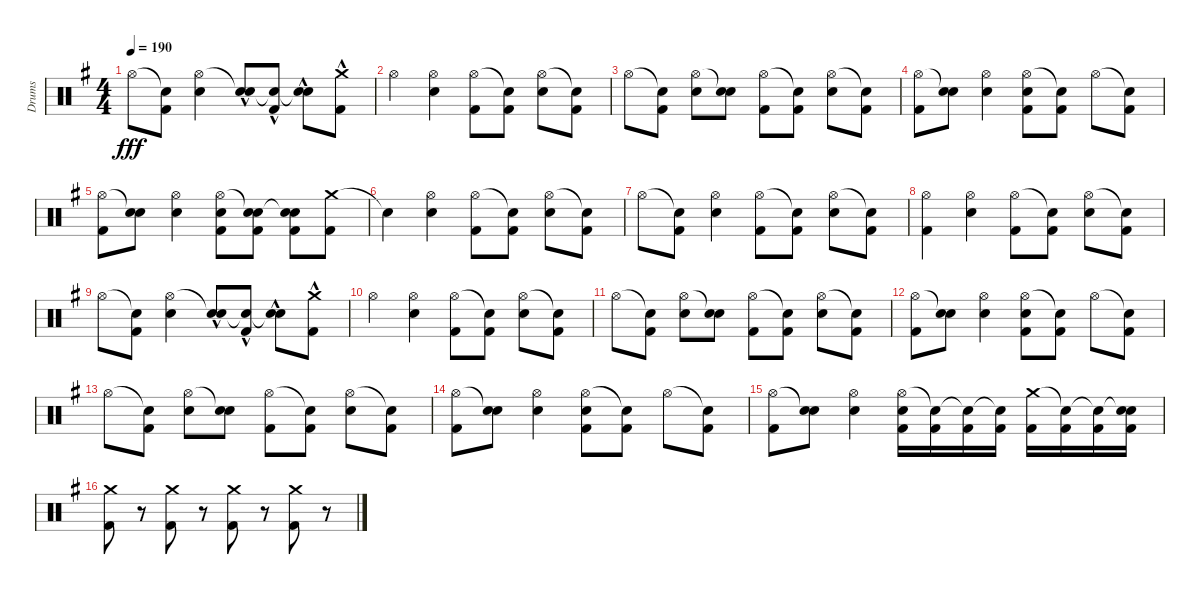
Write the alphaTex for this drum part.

\track ("Drums" "Drums") {instrument percussion}
\staff {score}
\articulation defaults
\ts (4 4)
\tempo 190
\clef neutral
\ks eminor "Hi-Hat (open)".8{dy fff}
("Snare (hit)"{t} "Kick (hit) 2").8 ("Hi-Hat (open)" "Electric Snare (hit)").4 ("Snare (hit)"{t} "Electric Snare (hit)"{hac}).8 ("Snare (hit)"{t} "Kick (hit) 2"{hac}).8 ("Snare (hit)"{t} "Electric Snare (hit)"{hac}).8 ("Crash medium (hit)" "Kick (hit) 2"{hac}).8 |
"Hi-Hat (open)".4 ("Hi-Hat (open)" "Electric Snare (hit)").4 ("Hi-Hat (open)" "Kick (hit) 2").8 ("Snare (hit)"{t} "Kick (hit) 2").8 ("Hi-Hat (open)" "Electric Snare (hit)").8 ("Snare (hit)"{t} "Kick (hit) 2").8 |
"Hi-Hat (open)".8 ("Snare (hit)"{t} "Kick (hit) 2").8 ("Hi-Hat (open)" "Electric Snare (hit)").8 ("Snare (hit)"{t} "Electric Snare (hit)").8 ("Hi-Hat (open)" "Kick (hit) 2").8 ("Snare (hit)"{t} "Kick (hit) 2").8 ("Hi-Hat (open)" "Electric Snare (hit)").8 ("Snare (hit)"{t} "Kick (hit) 2").8 |
("Hi-Hat (open)" "Kick (hit) 2").8 ("Snare (hit)"{t} "Electric Snare (hit)").8 ("Hi-Hat (open)" "Electric Snare (hit)").4 ("Hi-Hat (open)" "Electric Snare (hit)" "Kick (hit) 2").8 ("Snare (hit)"{t} "Kick (hit) 2").8 "Hi-Hat (open)".8 ("Snare (hit)"{t} "Kick (hit) 2").8 |
("Hi-Hat (open)" "Kick (hit) 2").8 ("Snare (hit)"{t} "Electric Snare (hit)").8 ("Hi-Hat (open)" "Electric Snare (hit)").4 ("Hi-Hat (open)" "Electric Snare (hit)" "Kick (hit) 2").8 ("Snare (hit)"{t} "Electric Snare (hit)" "Kick (hit) 2").8 ("Snare (hit)"{t} "Electric Snare (hit)" "Kick (hit) 2").8 ("Crash medium (hit)" "Kick (hit) 2").8 |
"Snare (hit)"{t}.4 ("Hi-Hat (open)" "Electric Snare (hit)").4 ("Hi-Hat (open)" "Kick (hit) 2").8 ("Snare (hit)"{t} "Kick (hit) 2").8 ("Hi-Hat (open)" "Electric Snare (hit)").8 ("Snare (hit)"{t} "Kick (hit) 2").8 |
"Hi-Hat (open)".8 ("Snare (hit)"{t} "Kick (hit) 2").8 ("Hi-Hat (open)" "Electric Snare (hit)").4 ("Hi-Hat (open)" "Kick (hit) 2").8 ("Snare (hit)"{t} "Kick (hit) 2").8 ("Hi-Hat (open)" "Electric Snare (hit)").8 ("Snare (hit)"{t} "Kick (hit) 2").8 |
("Hi-Hat (open)" "Kick (hit) 2").4 ("Hi-Hat (open)" "Electric Snare (hit)").4 ("Hi-Hat (open)" "Kick (hit) 2").8 ("Snare (hit)"{t} "Kick (hit) 2").8 ("Hi-Hat (open)" "Electric Snare (hit)").8 ("Snare (hit)"{t} "Kick (hit) 2").8 |
"Hi-Hat (open)".8 ("Snare (hit)"{t} "Kick (hit) 2").8 ("Hi-Hat (open)" "Electric Snare (hit)").4 ("Snare (hit)"{t} "Electric Snare (hit)"{hac}).8 ("Snare (hit)"{t} "Kick (hit) 2"{hac}).8 ("Snare (hit)"{t} "Electric Snare (hit)"{hac}).8 ("Crash medium (hit)" "Kick (hit) 2"{hac}).8 |
"Hi-Hat (open)".4 ("Hi-Hat (open)" "Electric Snare (hit)").4 ("Hi-Hat (open)" "Kick (hit) 2").8 ("Snare (hit)"{t} "Kick (hit) 2").8 ("Hi-Hat (open)" "Electric Snare (hit)").8 ("Snare (hit)"{t} "Kick (hit) 2").8 |
"Hi-Hat (open)".8 ("Snare (hit)"{t} "Kick (hit) 2").8 ("Hi-Hat (open)" "Electric Snare (hit)").8 ("Snare (hit)"{t} "Electric Snare (hit)").8 ("Hi-Hat (open)" "Kick (hit) 2").8 ("Snare (hit)"{t} "Kick (hit) 2").8 ("Hi-Hat (open)" "Electric Snare (hit)").8 ("Snare (hit)"{t} "Kick (hit) 2").8 |
("Hi-Hat (open)" "Kick (hit) 2").8 ("Snare (hit)"{t} "Electric Snare (hit)").8 ("Hi-Hat (open)" "Electric Snare (hit)").4 ("Hi-Hat (open)" "Electric Snare (hit)" "Kick (hit) 2").8 ("Snare (hit)"{t} "Kick (hit) 2").8 "Hi-Hat (open)".8 ("Snare (hit)"{t} "Kick (hit) 2").8 |
"Hi-Hat (open)".8 ("Snare (hit)"{t} "Kick (hit) 2").8 ("Hi-Hat (open)" "Electric Snare (hit)").8 ("Snare (hit)"{t} "Electric Snare (hit)").8 ("Hi-Hat (open)" "Kick (hit) 2").8 ("Snare (hit)"{t} "Kick (hit) 2").8 ("Hi-Hat (open)" "Electric Snare (hit)").8 ("Snare (hit)"{t} "Kick (hit) 2").8 |
("Hi-Hat (open)" "Kick (hit) 2").8 ("Snare (hit)"{t} "Electric Snare (hit)").8 ("Hi-Hat (open)" "Electric Snare (hit)").4 ("Hi-Hat (open)" "Electric Snare (hit)" "Kick (hit) 2").8 ("Snare (hit)"{t} "Kick (hit) 2").8 "Hi-Hat (open)".8 ("Snare (hit)"{t} "Kick (hit) 2").8 |
("Hi-Hat (open)" "Kick (hit) 2").8 ("Snare (hit)"{t} "Electric Snare (hit)").8 ("Hi-Hat (open)" "Electric Snare (hit)").4 ("Hi-Hat (open)" "Electric Snare (hit)" "Kick (hit) 2").16 ("Snare (hit)"{t} "Kick (hit) 2").16 ("Snare (hit)"{t} "Kick (hit) 2").16 ("Snare (hit)"{t} "Kick (hit) 2").16 ("Crash medium (hit)" "Kick (hit) 2").16 ("Snare (hit)"{t} "Kick (hit) 2").16 ("Snare (hit)"{t} "Kick (hit) 2").16 ("Snare (hit)"{t} "Electric Snare (hit)" "Kick (hit) 2").16 |
("Crash medium (hit)" "Kick (hit) 2").8 r.8{volume 0} ("Crash medium (hit)" "Kick (hit) 2").8{volume 16} r.8{volume 0} ("Crash medium (hit)" "Kick (hit) 2").8{volume 16} r.8{volume 0} ("Crash medium (hit)" "Kick (hit) 2").8{volume 16} r.8{volume 0}
